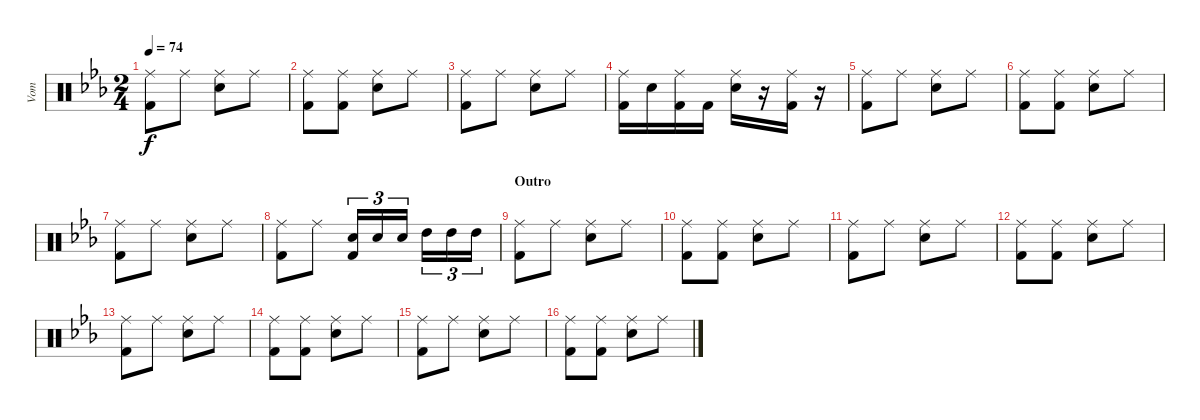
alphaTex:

\track ("Vom" "Vom") {instrument percussion}
\staff {score}
\articulation defaults
\ts (2 4)
\tempo 74
\clef neutral
\ks eb
("Ride (middle)" "Kick (hit) 2").8{dy f} "Ride (middle)".8 ("Ride (middle)" "Snare (hit) 2").8 "Ride (middle)".8 |
("Ride (middle)" "Kick (hit) 2").8 ("Ride (middle)" "Kick (hit) 2").8 ("Ride (middle)" "Snare (hit) 2").8 "Ride (middle)".8 |
("Ride (middle)" "Kick (hit) 2").8 "Ride (middle)".8 ("Ride (middle)" "Snare (hit) 2").8 "Ride (middle)".8 |
("Ride (middle)" "Kick (hit) 2").16 "Snare (hit) 2".16 ("Ride (middle)" "Kick (hit) 2").16 "Kick (hit) 2".16 ("Ride (middle)" "Snare (hit) 2").16 r.16 ("Ride (middle)" "Kick (hit) 2").16 r.16 |
("Ride (middle)" "Kick (hit) 2").8 "Ride (middle)".8 ("Ride (middle)" "Snare (hit) 2").8 "Ride (middle)".8 |
("Ride (middle)" "Kick (hit) 2").8 ("Ride (middle)" "Kick (hit) 2").8 ("Ride (middle)" "Snare (hit) 2").8 "Ride (middle)".8 |
("Ride (middle)" "Kick (hit) 2").8 "Ride (middle)".8 ("Ride (middle)" "Snare (hit) 2").8 "Ride (middle)".8 |
("Ride (middle)" "Kick (hit) 2").8 "Ride (middle)".8 ("Snare (hit) 2" "Kick (hit) 2").16{tu (3 2)} "Snare (hit) 2".16{tu (3 2)} "Snare (hit) 2".16{tu (3 2)} "High Tom (hit)".16{tu (3 2)} "High Tom (hit)".16{tu (3 2)} "High Tom (hit)".16{tu (3 2)} |
\section ("" "Outro")
("Ride (middle)" "Kick (hit) 2").8 "Ride (middle)".8 ("Ride (middle)" "Snare (hit) 2").8 "Ride (middle)".8 |
("Ride (middle)" "Kick (hit) 2").8 ("Ride (middle)" "Kick (hit) 2").8 ("Ride (middle)" "Snare (hit) 2").8 "Ride (middle)".8 |
("Ride (middle)" "Kick (hit) 2").8 "Ride (middle)".8 ("Ride (middle)" "Snare (hit) 2").8 "Ride (middle)".8 |
("Ride (middle)" "Kick (hit) 2").8 ("Ride (middle)" "Kick (hit) 2").8 ("Ride (middle)" "Snare (hit) 2").8 "Ride (middle)".8 |
("Ride (middle)" "Kick (hit) 2").8 "Ride (middle)".8 ("Ride (middle)" "Snare (hit) 2").8 "Ride (middle)".8 |
("Ride (middle)" "Kick (hit) 2").8 ("Ride (middle)" "Kick (hit) 2").8 ("Ride (middle)" "Snare (hit) 2").8 "Ride (middle)".8 |
("Ride (middle)" "Kick (hit) 2").8 "Ride (middle)".8 ("Ride (middle)" "Snare (hit) 2").8 "Ride (middle)".8 |
("Ride (middle)" "Kick (hit) 2").8 ("Ride (middle)" "Kick (hit) 2").8 ("Ride (middle)" "Snare (hit) 2").8 "Ride (middle)".8
